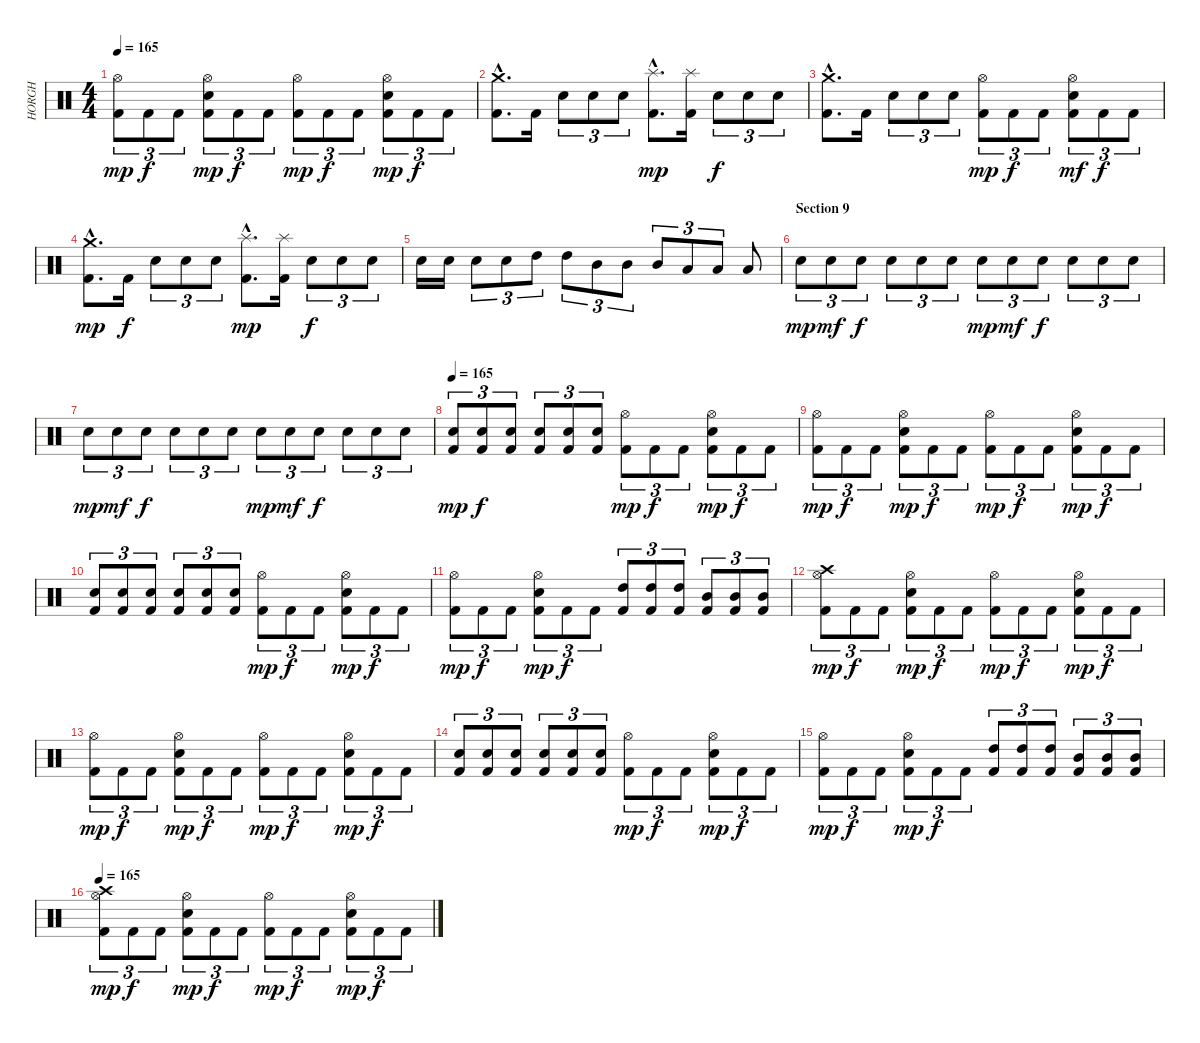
\track ("HORGH" "HORGH") {instrument percussion}
\staff {score}
\articulation defaults
\ts (4 4)
\tempo 165
\clef neutral
\ks c
("Hi-Hat (open)" "Kick (hit) 2").8{tu (3 2) dy mp} "Kick (hit) 2".8{tu (3 2) dy f} "Kick (hit) 2".8{tu (3 2)} ("Hi-Hat (open)" "Electric Snare (hit)" "Kick (hit) 2").8{tu (3 2) dy mp} "Kick (hit) 2".8{tu (3 2) dy f} "Kick (hit) 2".8{tu (3 2)} ("Hi-Hat (open)" "Kick (hit) 2").8{tu (3 2) dy mp} "Kick (hit) 2".8{tu (3 2) dy f} "Kick (hit) 2".8{tu (3 2)} ("Hi-Hat (open)" "Electric Snare (hit)" "Kick (hit) 2").8{tu (3 2) dy mp} "Kick (hit) 2".8{tu (3 2) dy f} "Kick (hit) 2".8{tu (3 2)} |
("Crash medium (hit)"{hac} "Kick (hit) 2"{hac}).8{d} "Kick (hit) 2".16 "Electric Snare (hit)".8{tu (3 2)} "Electric Snare (hit)".8{tu (3 2)} "Electric Snare (hit)".8{tu (3 2)} ("Splash (hit)"{hac} "Kick (hit) 2"{hac}).8{d dy mp} ("Splash (hit)" "Kick (hit) 2").16 "Electric Snare (hit)".8{tu (3 2) dy f} "Electric Snare (hit)".8{tu (3 2)} "Electric Snare (hit)".8{tu (3 2)} |
("Crash medium (hit)"{hac} "Kick (hit) 2"{hac}).8{d} "Kick (hit) 2".16 "Electric Snare (hit)".8{tu (3 2)} "Electric Snare (hit)".8{tu (3 2)} "Electric Snare (hit)".8{tu (3 2)} ("Hi-Hat (open)" "Kick (hit) 2").8{tu (3 2) dy mp} "Kick (hit) 2".8{tu (3 2) dy f} "Kick (hit) 2".8{tu (3 2)} ("Hi-Hat (open)" "Electric Snare (hit)" "Kick (hit) 2").8{tu (3 2) dy mf} "Kick (hit) 2".8{tu (3 2) dy f} "Kick (hit) 2".8{tu (3 2)} |
("Crash medium (hit)"{hac} "Kick (hit) 2"{hac}).8{d dy mp} "Kick (hit) 2".16{dy f} "Electric Snare (hit)".8{tu (3 2)} "Electric Snare (hit)".8{tu (3 2)} "Electric Snare (hit)".8{tu (3 2)} ("Splash (hit)"{hac} "Kick (hit) 2"{hac}).8{d dy mp} ("Splash (hit)" "Kick (hit) 2").16 "Electric Snare (hit)".8{tu (3 2) dy f} "Electric Snare (hit)".8{tu (3 2)} "Electric Snare (hit)".8{tu (3 2)} |
"Electric Snare (hit)".16 "Electric Snare (hit)".16 "Electric Snare (hit)".8{tu (3 2)} "Electric Snare (hit)".8{tu (3 2)} "High Tom (hit)".8{tu (3 2)} "High Tom (hit)".8{tu (3 2)} "Mid Tom (hit)".8{tu (3 2)} "Mid Tom (hit)".8{tu (3 2)} "Mid Tom (hit)".8{tu (3 2)} "Low Tom (hit)".8{tu (3 2)} "Low Tom (hit)".8{tu (3 2)} "Low Tom (hit)".8 |
\section ("" "Section 9")
"Electric Snare (hit)".8{tu (3 2) dy mp volume 10 balance 0} "Electric Snare (hit)".8{tu (3 2) dy mf} "Electric Snare (hit)".8{tu (3 2) dy f} "Electric Snare (hit)".8{tu (3 2)} "Electric Snare (hit)".8{tu (3 2)} "Electric Snare (hit)".8{tu (3 2)} "Electric Snare (hit)".8{tu (3 2) dy mp} "Electric Snare (hit)".8{tu (3 2) dy mf} "Electric Snare (hit)".8{tu (3 2) dy f} "Electric Snare (hit)".8{tu (3 2)} "Electric Snare (hit)".8{tu (3 2)} "Electric Snare (hit)".8{tu (3 2)} |
"Electric Snare (hit)".8{tu (3 2) dy mp balance 16} "Electric Snare (hit)".8{tu (3 2) dy mf} "Electric Snare (hit)".8{tu (3 2) dy f} "Electric Snare (hit)".8{tu (3 2)} "Electric Snare (hit)".8{tu (3 2)} "Electric Snare (hit)".8{tu (3 2)} "Electric Snare (hit)".8{tu (3 2) dy mp} "Electric Snare (hit)".8{tu (3 2) dy mf} "Electric Snare (hit)".8{tu (3 2) dy f} "Electric Snare (hit)".8{tu (3 2)} "Electric Snare (hit)".8{tu (3 2)} "Electric Snare (hit)".8{tu (3 2)} |
\tempo 165
("Electric Snare (hit)" "Kick (hit) 2").8{tu (3 2) dy mp balance 8} ("Electric Snare (hit)" "Kick (hit) 2").8{tu (3 2) dy f} ("Electric Snare (hit)" "Kick (hit) 2").8{tu (3 2)} ("Electric Snare (hit)" "Kick (hit) 2").8{tu (3 2)} ("Electric Snare (hit)" "Kick (hit) 2").8{tu (3 2)} ("Electric Snare (hit)" "Kick (hit) 2").8{tu (3 2)} ("Hi-Hat (open)" "Kick (hit) 2").8{tu (3 2) dy mp} "Kick (hit) 2".8{tu (3 2) dy f} "Kick (hit) 2".8{tu (3 2)} ("Hi-Hat (open)" "Electric Snare (hit)" "Kick (hit) 2").8{tu (3 2) dy mp} "Kick (hit) 2".8{tu (3 2) dy f} "Kick (hit) 2".8{tu (3 2)} |
("Hi-Hat (open)" "Kick (hit) 2").8{tu (3 2) dy mp} "Kick (hit) 2".8{tu (3 2) dy f} "Kick (hit) 2".8{tu (3 2)} ("Hi-Hat (open)" "Electric Snare (hit)" "Kick (hit) 2").8{tu (3 2) dy mp} "Kick (hit) 2".8{tu (3 2) dy f} "Kick (hit) 2".8{tu (3 2)} ("Hi-Hat (open)" "Kick (hit) 2").8{tu (3 2) dy mp} "Kick (hit) 2".8{tu (3 2) dy f} "Kick (hit) 2".8{tu (3 2)} ("Hi-Hat (open)" "Electric Snare (hit)" "Kick (hit) 2").8{tu (3 2) dy mp} "Kick (hit) 2".8{tu (3 2) dy f} "Kick (hit) 2".8{tu (3 2)} |
("Electric Snare (hit)" "Kick (hit) 2").8{tu (3 2)} ("Electric Snare (hit)" "Kick (hit) 2").8{tu (3 2)} ("Electric Snare (hit)" "Kick (hit) 2").8{tu (3 2)} ("Electric Snare (hit)" "Kick (hit) 2").8{tu (3 2)} ("Electric Snare (hit)" "Kick (hit) 2").8{tu (3 2)} ("Electric Snare (hit)" "Kick (hit) 2").8{tu (3 2)} ("Hi-Hat (open)" "Kick (hit) 2").8{tu (3 2) dy mp} "Kick (hit) 2".8{tu (3 2) dy f} "Kick (hit) 2".8{tu (3 2)} ("Hi-Hat (open)" "Electric Snare (hit)" "Kick (hit) 2").8{tu (3 2) dy mp} "Kick (hit) 2".8{tu (3 2) dy f} "Kick (hit) 2".8{tu (3 2)} |
("Hi-Hat (open)" "Kick (hit) 2").8{tu (3 2) dy mp} "Kick (hit) 2".8{tu (3 2) dy f} "Kick (hit) 2".8{tu (3 2)} ("Hi-Hat (open)" "Electric Snare (hit)" "Kick (hit) 2").8{tu (3 2) dy mp} "Kick (hit) 2".8{tu (3 2) dy f} "Kick (hit) 2".8{tu (3 2)} ("High Tom (hit)" "Kick (hit) 2").8{tu (3 2)} ("High Tom (hit)" "Kick (hit) 2").8{tu (3 2)} ("High Tom (hit)" "Kick (hit) 2").8{tu (3 2)} ("Mid Tom (hit)" "Kick (hit) 2").8{tu (3 2)} ("Mid Tom (hit)" "Kick (hit) 2").8{tu (3 2)} ("Mid Tom (hit)" "Kick (hit) 2").8{tu (3 2)} |
("Hi-Hat (open)" "Crash high (hit)" "Kick (hit) 2").8{tu (3 2) dy mp} "Kick (hit) 2".8{tu (3 2) dy f} "Kick (hit) 2".8{tu (3 2)} ("Hi-Hat (open)" "Electric Snare (hit)" "Kick (hit) 2").8{tu (3 2) dy mp} "Kick (hit) 2".8{tu (3 2) dy f} "Kick (hit) 2".8{tu (3 2)} ("Hi-Hat (open)" "Kick (hit) 2").8{tu (3 2) dy mp} "Kick (hit) 2".8{tu (3 2) dy f} "Kick (hit) 2".8{tu (3 2)} ("Hi-Hat (open)" "Electric Snare (hit)" "Kick (hit) 2").8{tu (3 2) dy mp} "Kick (hit) 2".8{tu (3 2) dy f} "Kick (hit) 2".8{tu (3 2)} |
("Hi-Hat (open)" "Kick (hit) 2").8{tu (3 2) dy mp} "Kick (hit) 2".8{tu (3 2) dy f} "Kick (hit) 2".8{tu (3 2)} ("Hi-Hat (open)" "Electric Snare (hit)" "Kick (hit) 2").8{tu (3 2) dy mp} "Kick (hit) 2".8{tu (3 2) dy f} "Kick (hit) 2".8{tu (3 2)} ("Hi-Hat (open)" "Kick (hit) 2").8{tu (3 2) dy mp} "Kick (hit) 2".8{tu (3 2) dy f} "Kick (hit) 2".8{tu (3 2)} ("Hi-Hat (open)" "Electric Snare (hit)" "Kick (hit) 2").8{tu (3 2) dy mp} "Kick (hit) 2".8{tu (3 2) dy f} "Kick (hit) 2".8{tu (3 2)} |
("Electric Snare (hit)" "Kick (hit) 2").8{tu (3 2)} ("Electric Snare (hit)" "Kick (hit) 2").8{tu (3 2)} ("Electric Snare (hit)" "Kick (hit) 2").8{tu (3 2)} ("Electric Snare (hit)" "Kick (hit) 2").8{tu (3 2)} ("Electric Snare (hit)" "Kick (hit) 2").8{tu (3 2)} ("Electric Snare (hit)" "Kick (hit) 2").8{tu (3 2)} ("Hi-Hat (open)" "Kick (hit) 2").8{tu (3 2) dy mp} "Kick (hit) 2".8{tu (3 2) dy f} "Kick (hit) 2".8{tu (3 2)} ("Hi-Hat (open)" "Electric Snare (hit)" "Kick (hit) 2").8{tu (3 2) dy mp} "Kick (hit) 2".8{tu (3 2) dy f} "Kick (hit) 2".8{tu (3 2)} |
("Hi-Hat (open)" "Kick (hit) 2").8{tu (3 2) dy mp} "Kick (hit) 2".8{tu (3 2) dy f} "Kick (hit) 2".8{tu (3 2)} ("Hi-Hat (open)" "Electric Snare (hit)" "Kick (hit) 2").8{tu (3 2) dy mp} "Kick (hit) 2".8{tu (3 2) dy f} "Kick (hit) 2".8{tu (3 2)} ("High Tom (hit)" "Kick (hit) 2").8{tu (3 2)} ("High Tom (hit)" "Kick (hit) 2").8{tu (3 2)} ("High Tom (hit)" "Kick (hit) 2").8{tu (3 2)} ("Mid Tom (hit)" "Kick (hit) 2").8{tu (3 2)} ("Mid Tom (hit)" "Kick (hit) 2").8{tu (3 2)} ("Mid Tom (hit)" "Kick (hit) 2").8{tu (3 2)} |
\tempo 165
("Hi-Hat (open)" "Crash high (hit)" "Kick (hit) 2").8{tu (3 2) dy mp} "Kick (hit) 2".8{tu (3 2) dy f} "Kick (hit) 2".8{tu (3 2)} ("Hi-Hat (open)" "Electric Snare (hit)" "Kick (hit) 2").8{tu (3 2) dy mp} "Kick (hit) 2".8{tu (3 2) dy f} "Kick (hit) 2".8{tu (3 2)} ("Hi-Hat (open)" "Kick (hit) 2").8{tu (3 2) dy mp} "Kick (hit) 2".8{tu (3 2) dy f} "Kick (hit) 2".8{tu (3 2)} ("Hi-Hat (open)" "Electric Snare (hit)" "Kick (hit) 2").8{tu (3 2) dy mp} "Kick (hit) 2".8{tu (3 2) dy f} "Kick (hit) 2".8{tu (3 2)}
